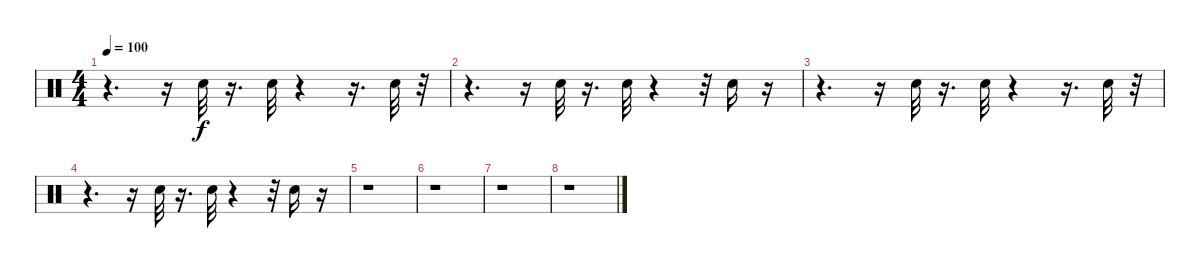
\track "" {instrument percussion}
\staff {score}
\articulation defaults
\ts (4 4)
\tempo 100
\clef neutral
\ks c
r.4{d dy f} r.16 "Snare (hit)".32 r.16{d} "Snare (hit)".32 r.4 r.16{d} "Snare (hit)".32 r.32 |
r.4{d} r.16 "Snare (hit)".32 r.16{d} "Snare (hit)".32 r.4 r.32 "Snare (hit)".16 r.16 |
r.4{d} r.16 "Snare (hit)".32 r.16{d} "Snare (hit)".32 r.4 r.16{d} "Snare (hit)".32 r.32 |
r.4{d} r.16 "Snare (hit)".32 r.16{d} "Snare (hit)".32 r.4 r.32 "Snare (hit)".16 r.16 |
r.1 |
r.1 |
r.1 |
r.1
